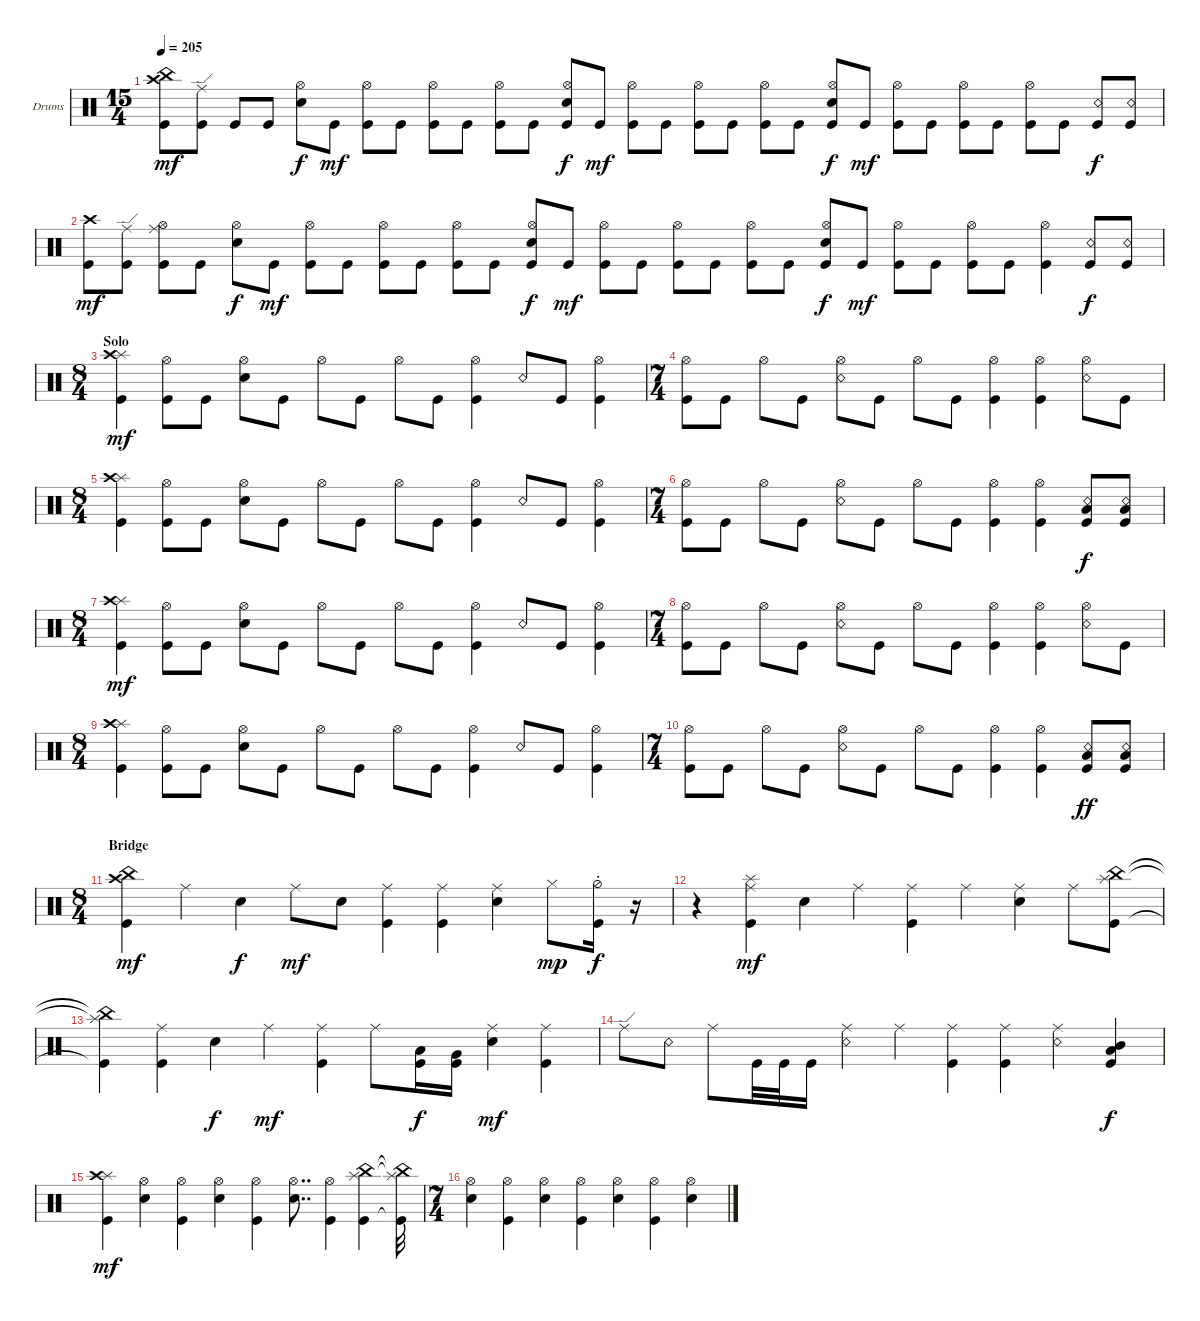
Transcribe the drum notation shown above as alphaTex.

\defaultSystemsLayout 4
\bracketExtendMode groupsimilarinstruments
\firstSystemTrackNameOrientation horizontal
\otherSystemsTrackNameOrientation horizontal
\track ("GordiBuena" "Drums") {instrument percussion}
\staff {score}
\articulation defaults
\ts (15 4)
\tempo 205
\clef neutral
\ks c
("Kick (hit)" "Crash high (hit)" "China (hit)").8{dy mf} ("Kick (hit)" "Ride (edge)").8 "Kick (hit)".8 "Kick (hit)".8 ("Hi-Hat (open)" "Snare (hit) 2").8{dy f} "Kick (hit)".8{dy mf} ("Kick (hit)" "Hi-Hat (open)").8 "Kick (hit)".8 ("Kick (hit)" "Hi-Hat (open)").8 "Kick (hit)".8 ("Kick (hit)" "Hi-Hat (open)").8 "Kick (hit)".8 ("Kick (hit)" "Hi-Hat (open)" "Snare (hit) 2").8{dy f} "Kick (hit)".8{dy mf} ("Kick (hit)" "Hi-Hat (open)").8 "Kick (hit)".8 ("Kick (hit)" "Hi-Hat (open)").8 "Kick (hit)".8 ("Kick (hit)" "Hi-Hat (open)").8 "Kick (hit)".8 ("Kick (hit)" "Hi-Hat (open)" "Snare (hit) 2").8{dy f} "Kick (hit)".8{dy mf} ("Kick (hit)" "Hi-Hat (open)").8 "Kick (hit)".8 ("Kick (hit)" "Hi-Hat (open)").8 "Kick (hit)".8 ("Kick (hit)" "Hi-Hat (open)").8 "Kick (hit)".8 ("Kick (hit)" "Snare (rim shot)").8{dy f} ("Kick (hit)" "Snare (rim shot)").8 |
("Kick (hit)" "Crash high (hit)").8{dy mf} ("Kick (hit)" "Ride (edge)").8 ("Kick (hit)" "Hi-Hat (open)" "Ride (middle)").8 "Kick (hit)".8 ("Hi-Hat (open)" "Snare (hit) 2").8{dy f} "Kick (hit)".8{dy mf} ("Kick (hit)" "Hi-Hat (open)").8 "Kick (hit)".8 ("Kick (hit)" "Hi-Hat (open)").8 "Kick (hit)".8 ("Kick (hit)" "Hi-Hat (open)").8 "Kick (hit)".8 ("Kick (hit)" "Hi-Hat (open)" "Snare (hit) 2").8{dy f} "Kick (hit)".8{dy mf} ("Kick (hit)" "Hi-Hat (open)").8 "Kick (hit)".8 ("Kick (hit)" "Hi-Hat (open)").8 "Kick (hit)".8 ("Kick (hit)" "Hi-Hat (open)").8 "Kick (hit)".8 ("Kick (hit)" "Hi-Hat (open)" "Snare (hit) 2").8{dy f} "Kick (hit)".8{dy mf} ("Kick (hit)" "Hi-Hat (open)").8 "Kick (hit)".8 ("Kick (hit)" "Hi-Hat (open)").8 "Kick (hit)".8 ("Kick (hit)" "Hi-Hat (open)").4 ("Kick (hit)" "Snare (rim shot)").8{dy f} ("Kick (hit)" "Snare (rim shot)").8 |
\ts (8 4)
\section ("" "Solo")
("Kick (hit)" "Splash (hit)" "Crash high (hit)").4{dy mf} ("Kick (hit)" "Hi-Hat (open)").8 "Kick (hit)".8 ("Hi-Hat (open)" "Snare (hit) 2").8 "Kick (hit)".8 "Hi-Hat (open)".8 "Kick (hit)".8 "Hi-Hat (open)".8 "Kick (hit)".8 ("Kick (hit)" "Hi-Hat (open)").4 "Snare (rim shot)".8 "Kick (hit)".8 ("Kick (hit)" "Hi-Hat (open)").4 |
\ts (7 4)
("Kick (hit)" "Hi-Hat (open)").8 "Kick (hit)".8 "Hi-Hat (open)".8 "Kick (hit)".8 ("Snare (rim shot)" "Hi-Hat (open)").8 "Kick (hit)".8 "Hi-Hat (open)".8 "Kick (hit)".8 ("Kick (hit)" "Hi-Hat (open)").4 ("Kick (hit)" "Hi-Hat (open)").4 ("Snare (rim shot)" "Hi-Hat (open)").8 "Kick (hit)".8 |
\ts (8 4)
("Kick (hit)" "Splash (hit)" "Crash high (hit)").4 ("Kick (hit)" "Hi-Hat (open)").8 "Kick (hit)".8 ("Hi-Hat (open)" "Snare (hit) 2").8 "Kick (hit)".8 "Hi-Hat (open)".8 "Kick (hit)".8 "Hi-Hat (open)".8 "Kick (hit)".8 ("Kick (hit)" "Hi-Hat (open)").4 "Snare (rim shot)".8 "Kick (hit)".8 ("Kick (hit)" "Hi-Hat (open)").4 |
\ts (7 4)
("Kick (hit)" "Hi-Hat (open)").8 "Kick (hit)".8 "Hi-Hat (open)".8 "Kick (hit)".8 ("Snare (rim shot)" "Hi-Hat (open)").8 "Kick (hit)".8 "Hi-Hat (open)".8 "Kick (hit)".8 ("Kick (hit)" "Hi-Hat (open)").4 ("Hi-Hat (open)" "Kick (hit)").4 ("Snare (rim shot)" "Kick (hit)" "Low Tom (hit)").8{dy f} ("Snare (rim shot)" "Kick (hit)" "Low Tom (hit)").8 |
\ts (8 4)
("Kick (hit)" "Splash (hit)" "Crash high (hit)").4{dy mf} ("Kick (hit)" "Hi-Hat (open)").8 "Kick (hit)".8 ("Hi-Hat (open)" "Snare (hit) 2").8 "Kick (hit)".8 "Hi-Hat (open)".8 "Kick (hit)".8 "Hi-Hat (open)".8 "Kick (hit)".8 ("Kick (hit)" "Hi-Hat (open)").4 "Snare (rim shot)".8 "Kick (hit)".8 ("Kick (hit)" "Hi-Hat (open)").4 |
\ts (7 4)
("Kick (hit)" "Hi-Hat (open)").8 "Kick (hit)".8 "Hi-Hat (open)".8 "Kick (hit)".8 ("Snare (rim shot)" "Hi-Hat (open)").8 "Kick (hit)".8 "Hi-Hat (open)".8 "Kick (hit)".8 ("Kick (hit)" "Hi-Hat (open)").4 ("Kick (hit)" "Hi-Hat (open)").4 ("Snare (rim shot)" "Hi-Hat (open)").8 "Kick (hit)".8 |
\ts (8 4)
("Kick (hit)" "Splash (hit)" "Crash high (hit)").4 ("Kick (hit)" "Hi-Hat (open)").8 "Kick (hit)".8 ("Hi-Hat (open)" "Snare (hit) 2").8 "Kick (hit)".8 "Hi-Hat (open)".8 "Kick (hit)".8 "Hi-Hat (open)".8 "Kick (hit)".8 ("Kick (hit)" "Hi-Hat (open)").4 "Snare (rim shot)".8 "Kick (hit)".8 ("Kick (hit)" "Hi-Hat (open)").4 |
\ts (7 4)
("Kick (hit)" "Hi-Hat (open)").8 "Kick (hit)".8 "Hi-Hat (open)".8 "Kick (hit)".8 ("Snare (rim shot)" "Hi-Hat (open)").8 "Kick (hit)".8 "Hi-Hat (open)".8 "Kick (hit)".8 ("Kick (hit)" "Hi-Hat (open)").4 ("Hi-Hat (open)" "Kick (hit)").4 ("Snare (rim shot)" "Kick (hit)" "Low Tom (hit)").8{dy ff} ("Snare (rim shot)" "Kick (hit)" "Low Tom (hit)").8 |
\ts (8 4)
\section ("" "Bridge")
("Kick (hit)" "Crash high (hit)" "China (hit)").4{dy mf} "Ride (middle)".4 "Snare (hit) 2".4{dy f} "Ride (middle)".8{dy mf} "Snare (hit) 2".8 ("Kick (hit)" "Ride (middle)").4 ("Kick (hit)" "Ride (middle)").4 ("Snare (hit) 2" "Ride (middle)").4 "Hi-Hat (closed)".8{dy mp} ("Hi-Hat (half)"{st} "Kick (hit)"{st}).16{dy f} r.16 |
r.4 ("Kick (hit)" "Ride (middle)" "Splash (hit)").4{dy mf} "Snare (hit) 2".4 "Ride (middle)".4 ("Kick (hit)" "Ride (middle)").4 "Ride (middle)".4 ("Snare (hit) 2" "Ride (middle)").4 "Ride (middle)".8 ("Kick (hit)" "China (hit)" "Splash (hit)").8 |
("Kick (hit)"{t} "China (hit)"{t} "Splash (hit)"{t}).4 ("Ride (middle)" "Kick (hit)").4 "Snare (hit) 2".4{dy f} "Ride (middle)".4{dy mf} ("Kick (hit)" "Ride (middle)").4 "Ride (middle)".8 ("Low Tom (hit)" "Kick (hit)").16{dy f} ("Very Low Tom (hit)" "Kick (hit)").16 ("Snare (hit) 2" "Ride (middle)").4{dy mf} ("Ride (middle)" "Kick (hit)").4 |
"Ride (edge)".8 "Snare (rim shot)".8 "Ride (middle)".8 "Kick (hit)".32 "Kick (hit)".32 "Kick (hit)".16 ("Snare (rim shot)" "Ride (middle)").4 "Ride (middle)".4 ("Kick (hit)" "Ride (middle)").4 ("Kick (hit)" "Ride (middle)").4 ("Snare (rim shot)" "Ride (middle)").4 ("Low Tom (hit)" "Mid Tom (hit)" "Kick (hit)").4{dy f} |
("Kick (hit)" "Splash (hit)" "Crash high (hit)").4{dy mf} ("Snare (hit) 2" "Hi-Hat (open)").4 ("Kick (hit)" "Hi-Hat (open)").4 ("Snare (hit) 2" "Hi-Hat (open)").4 ("Kick (hit)" "Hi-Hat (open)").4 ("Snare (hit) 2" "Hi-Hat (open)").8{dd} ("Kick (hit)" "Hi-Hat (open)").4 ("Kick (hit)" "China (hit)" "Splash (hit)").4 ("Kick (hit)"{t} "China (hit)"{t} "Splash (hit)"{t}).32 |
\ts (7 4)
("Snare (hit) 2" "Hi-Hat (open)").4 ("Kick (hit)" "Hi-Hat (open)").4 ("Snare (hit) 2" "Hi-Hat (open)").4 ("Kick (hit)" "Hi-Hat (open)").4 ("Snare (hit) 2" "Hi-Hat (open)").4 ("Kick (hit)" "Hi-Hat (open)").4 ("Snare (hit) 2" "Hi-Hat (open)").4
